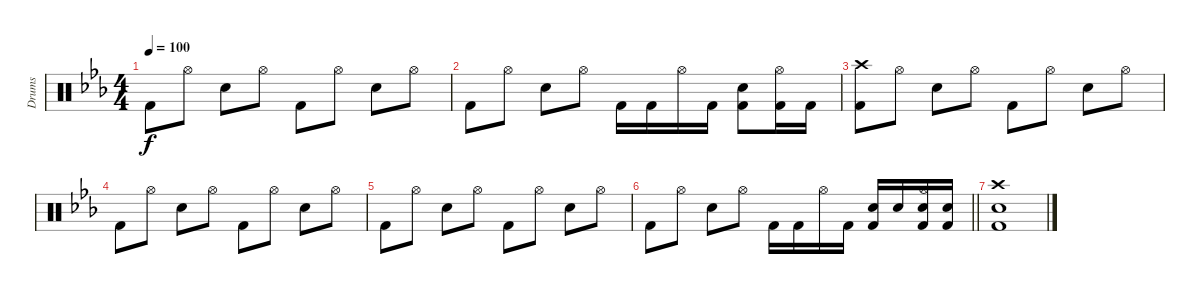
\track ("Drums" "Drums") {instrument percussion}
\staff {score}
\articulation defaults
\ts (4 4)
\tempo 100
\clef neutral
\ks eb "Kick (hit) 2".8{dy f} "Hi-Hat (open)".8 "Snare (hit) 2".8 "Hi-Hat (open)".8 "Kick (hit) 2".8 "Hi-Hat (open)".8 "Snare (hit) 2".8 "Hi-Hat (open)".8
|
"Kick (hit) 2".8 "Hi-Hat (open)".8 "Snare (hit) 2".8 "Hi-Hat (open)".8 "Kick (hit) 2".16 "Kick (hit) 2".16 "Hi-Hat (open)".16 "Kick (hit) 2".16 ("Kick (hit) 2" "Snare (hit) 2").8 ("Kick (hit) 2" "Hi-Hat (open)").16 "Kick (hit) 2".16 |
("Kick (hit) 2" "Crash high (hit)").8 "Hi-Hat (open)".8 "Snare (hit) 2".8 "Hi-Hat (open)".8 "Kick (hit) 2".8 "Hi-Hat (open)".8 "Snare (hit) 2".8 "Hi-Hat (open)".8 |
"Kick (hit) 2".8 "Hi-Hat (open)".8 "Snare (hit) 2".8 "Hi-Hat (open)".8 "Kick (hit) 2".8 "Hi-Hat (open)".8 "Snare (hit) 2".8 "Hi-Hat (open)".8 |
"Kick (hit) 2".8 "Hi-Hat (open)".8 "Snare (hit) 2".8 "Hi-Hat (open)".8 "Kick (hit) 2".8 "Hi-Hat (open)".8 "Snare (hit) 2".8 "Hi-Hat (open)".8 |
\barLineRight lightlight "Kick (hit) 2".8 "Hi-Hat (open)".8 "Snare (hit) 2".8 "Hi-Hat (open)".8 "Kick (hit) 2".16 "Kick (hit) 2".16 "Hi-Hat (open)".16 "Kick (hit) 2".16
("Kick (hit) 2" "Snare (hit) 2").16 "Snare (hit) 2".16 ("Snare (hit) 2" "Kick (hit) 2" "Hi-Hat (open)").16 ("Snare (hit) 2" "Kick (hit) 2").16 |
("Kick (hit) 2" "Snare (hit) 2" "Crash high (hit)").1
